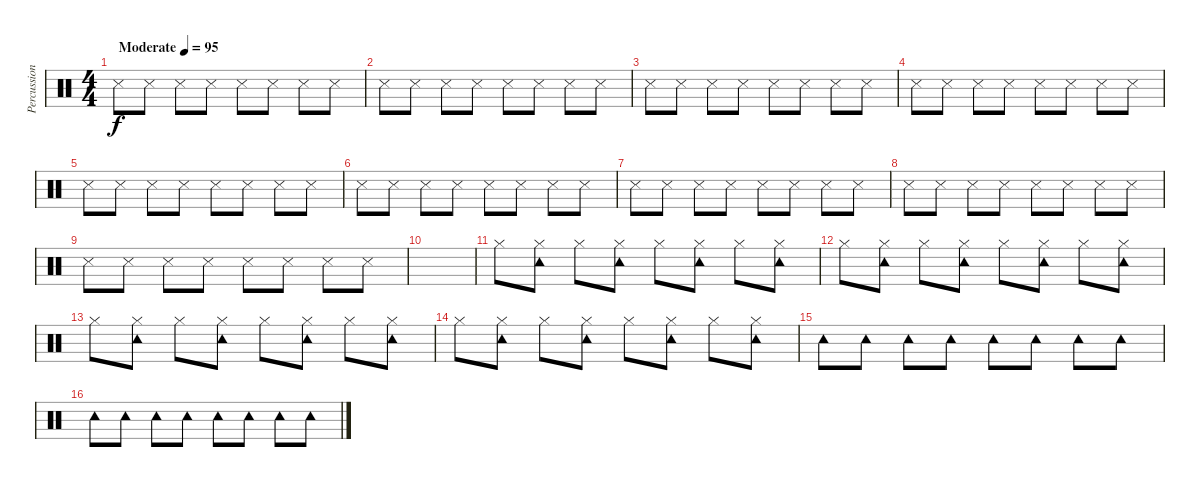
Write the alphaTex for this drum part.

\track ("Percussion" "Percussion") {instrument percussion}
\staff {score}
\articulation defaults
\ts (4 4)
\tempo (95 "Moderate")
\clef neutral
\ks c "Snare (side stick) 3".8{dy f} "Snare (side stick) 3".8 "Snare (side stick) 3".8 "Snare (side stick) 3".8 "Snare (side stick) 3".8 "Snare (side stick) 3".8 "Snare (side stick) 3".8 "Snare (side stick) 3".8
|
"Snare (side stick) 3".8 "Snare (side stick) 3".8 "Snare (side stick) 3".8 "Snare (side stick) 3".8 "Snare (side stick) 3".8 "Snare (side stick) 3".8 "Snare (side stick) 3".8 "Snare (side stick) 3".8 |
"Snare (side stick) 3".8 "Snare (side stick) 3".8 "Snare (side stick) 3".8 "Snare (side stick) 3".8 "Snare (side stick) 3".8 "Snare (side stick) 3".8 "Snare (side stick) 3".8 "Snare (side stick) 3".8 |
"Snare (side stick) 3".8 "Snare (side stick) 3".8 "Snare (side stick) 3".8 "Snare (side stick) 3".8 "Snare (side stick) 3".8 "Snare (side stick) 3".8 "Snare (side stick) 3".8 "Snare (side stick) 3".8 |
"Snare (side stick) 3".8 "Snare (side stick) 3".8 "Snare (side stick) 3".8 "Snare (side stick) 3".8 "Snare (side stick) 3".8 "Snare (side stick) 3".8 "Snare (side stick) 3".8 "Snare (side stick) 3".8 |
"Snare (side stick) 3".8 "Snare (side stick) 3".8 "Snare (side stick) 3".8 "Snare (side stick) 3".8 "Snare (side stick) 3".8 "Snare (side stick) 3".8 "Snare (side stick) 3".8 "Snare (side stick) 3".8 |
"Snare (side stick) 3".8 "Snare (side stick) 3".8 "Snare (side stick) 3".8 "Snare (side stick) 3".8 "Snare (side stick) 3".8 "Snare (side stick) 3".8 "Snare (side stick) 3".8 "Snare (side stick) 3".8 |
"Snare (side stick) 3".8 "Snare (side stick) 3".8 "Snare (side stick) 3".8 "Snare (side stick) 3".8 "Snare (side stick) 3".8 "Snare (side stick) 3".8 "Snare (side stick) 3".8 "Snare (side stick) 3".8 |
"Snare (side stick) 3".8 "Snare (side stick) 3".8 "Snare (side stick) 3".8 "Snare (side stick) 3".8 "Snare (side stick) 3".8 "Snare (side stick) 3".8 "Snare (side stick) 3".8 "Snare (side stick) 3".8 |
|
"Hi-Hat (closed)".8 ("Tambourine (hit)" "Hi-Hat (closed)").8 "Hi-Hat (closed)".8 ("Tambourine (hit)" "Hi-Hat (closed)").8 "Hi-Hat (closed)".8 ("Tambourine (hit)" "Hi-Hat (closed)").8 "Hi-Hat (closed)".8 ("Tambourine (hit)" "Hi-Hat (closed)").8 |
"Hi-Hat (closed)".8 ("Tambourine (hit)" "Hi-Hat (closed)").8 "Hi-Hat (closed)".8 ("Tambourine (hit)" "Hi-Hat (closed)").8 "Hi-Hat (closed)".8 ("Tambourine (hit)" "Hi-Hat (closed)").8 "Hi-Hat (closed)".8 ("Tambourine (hit)" "Hi-Hat (closed)").8 |
"Hi-Hat (closed)".8 ("Tambourine (hit)" "Hi-Hat (closed)").8 "Hi-Hat (closed)".8 ("Tambourine (hit)" "Hi-Hat (closed)").8 "Hi-Hat (closed)".8 ("Tambourine (hit)" "Hi-Hat (closed)").8 "Hi-Hat (closed)".8 ("Tambourine (hit)" "Hi-Hat (closed)").8 |
"Hi-Hat (closed)".8 ("Tambourine (hit)" "Hi-Hat (closed)").8 "Hi-Hat (closed)".8 ("Tambourine (hit)" "Hi-Hat (closed)").8 "Hi-Hat (closed)".8 ("Tambourine (hit)" "Hi-Hat (closed)").8 "Hi-Hat (closed)".8 ("Tambourine (hit)" "Hi-Hat (closed)").8 |
"Tambourine (hit)".8 "Tambourine (hit)".8 "Tambourine (hit)".8 "Tambourine (hit)".8 "Tambourine (hit)".8 "Tambourine (hit)".8 "Tambourine (hit)".8 "Tambourine (hit)".8 |
"Tambourine (hit)".8 "Tambourine (hit)".8 "Tambourine (hit)".8 "Tambourine (hit)".8 "Tambourine (hit)".8 "Tambourine (hit)".8 "Tambourine (hit)".8 "Tambourine (hit)".8
